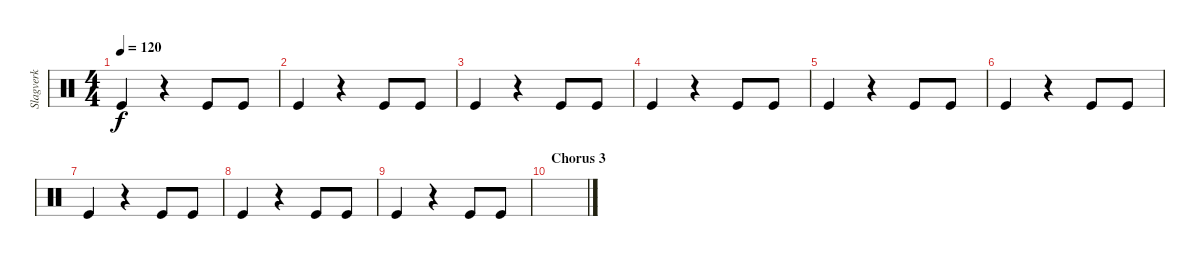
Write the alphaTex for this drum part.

\track ("Slagverk" "Slagverk") {instrument percussion}
\staff {score}
\articulation defaults
\ts (4 4)
\tempo 120
\clef neutral
\ks c "Kick (hit)".4{dy f}
r.4 "Kick (hit)".8 "Kick (hit)".8 |
"Kick (hit)".4 r.4 "Kick (hit)".8 "Kick (hit)".8 |
"Kick (hit)".4 r.4 "Kick (hit)".8 "Kick (hit)".8 |
"Kick (hit)".4 r.4 "Kick (hit)".8 "Kick (hit)".8 |
"Kick (hit)".4 r.4 "Kick (hit)".8 "Kick (hit)".8 |
"Kick (hit)".4 r.4 "Kick (hit)".8 "Kick (hit)".8 |
"Kick (hit)".4 r.4 "Kick (hit)".8 "Kick (hit)".8 |
"Kick (hit)".4 r.4 "Kick (hit)".8 "Kick (hit)".8 |
"Kick (hit)".4 r.4 "Kick (hit)".8 "Kick (hit)".8 |
\section ("" "Chorus 3")
